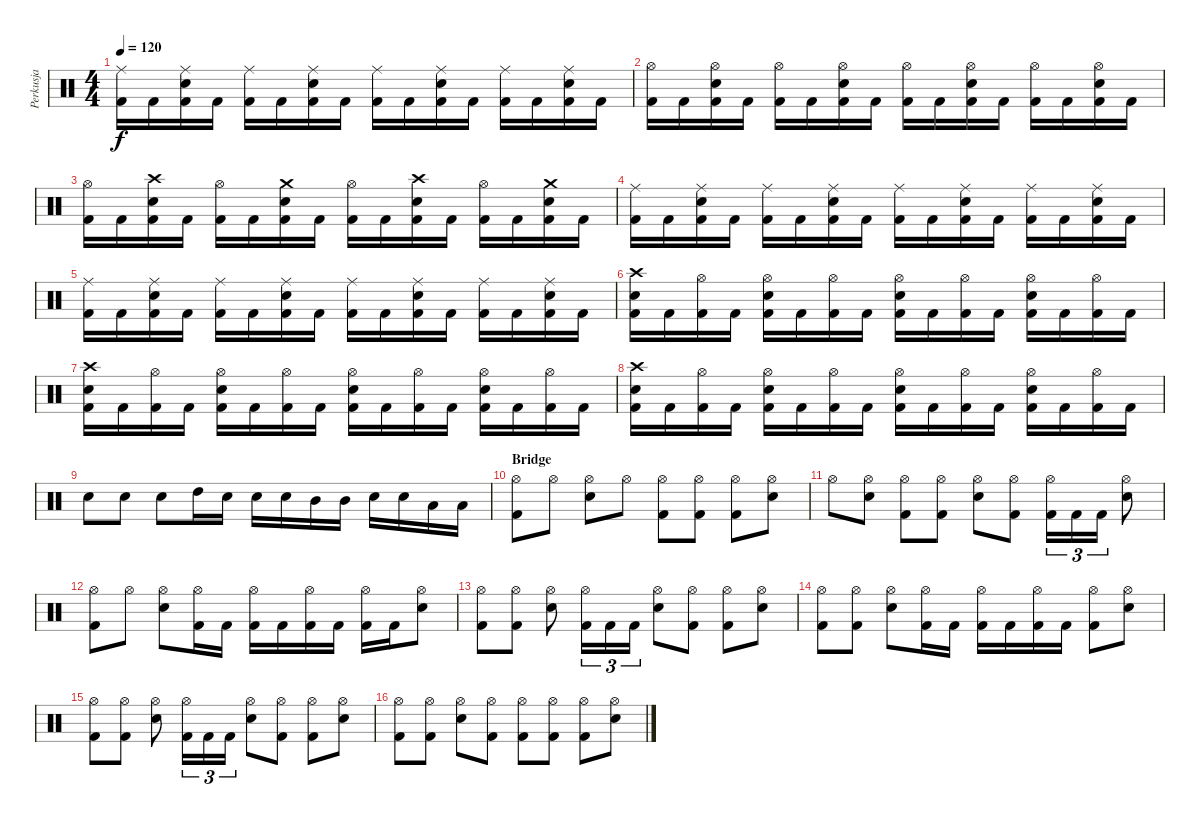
\track ("Perkusja" "Perkusja") {instrument percussion}
\staff {score}
\articulation defaults
\ts (4 4)
\tempo 120
\clef neutral
\ks c
("Ride (middle)" "Kick (hit) 2").16{dy f} "Kick (hit) 2".16 ("Ride (middle)" "Snare (hit) 2" "Kick (hit) 2").16 "Kick (hit) 2".16 ("Ride (middle)" "Kick (hit) 2").16 "Kick (hit) 2".16 ("Ride (middle)" "Snare (hit) 2" "Kick (hit) 2").16 "Kick (hit) 2".16 ("Ride (middle)" "Kick (hit) 2").16 "Kick (hit) 2".16 ("Ride (middle)" "Snare (hit) 2" "Kick (hit) 2").16 "Kick (hit) 2".16 ("Ride (middle)" "Kick (hit) 2").16 "Kick (hit) 2".16 ("Ride (middle)" "Snare (hit) 2" "Kick (hit) 2").16 "Kick (hit) 2".16 |
("Hi-Hat (open)" "Kick (hit) 2").16 "Kick (hit) 2".16 ("Hi-Hat (open)" "Snare (hit) 2" "Kick (hit) 2").16 "Kick (hit) 2".16 ("Hi-Hat (open)" "Kick (hit) 2").16 "Kick (hit) 2".16 ("Hi-Hat (open)" "Snare (hit) 2" "Kick (hit) 2").16 "Kick (hit) 2".16 ("Hi-Hat (open)" "Kick (hit) 2").16 "Kick (hit) 2".16 ("Hi-Hat (open)" "Snare (hit) 2" "Kick (hit) 2").16 "Kick (hit) 2".16 ("Hi-Hat (open)" "Kick (hit) 2").16 "Kick (hit) 2".16 ("Hi-Hat (open)" "Snare (hit) 2" "Kick (hit) 2").16 "Kick (hit) 2".16 |
("Hi-Hat (open)" "Kick (hit) 2").16 "Kick (hit) 2".16 ("Crash high (hit)" "Snare (hit) 2" "Kick (hit) 2").16 "Kick (hit) 2".16 ("Hi-Hat (open)" "Kick (hit) 2").16 "Kick (hit) 2".16 ("Crash medium (hit)" "Snare (hit) 2" "Kick (hit) 2").16 "Kick (hit) 2".16 ("Hi-Hat (open)" "Kick (hit) 2").16 "Kick (hit) 2".16 ("Crash high (hit)" "Snare (hit) 2" "Kick (hit) 2").16 "Kick (hit) 2".16 ("Hi-Hat (open)" "Kick (hit) 2").16 "Kick (hit) 2".16 ("Crash medium (hit)" "Snare (hit) 2" "Kick (hit) 2").16 "Kick (hit) 2".16 |
("Ride (middle)" "Kick (hit) 2").16 "Kick (hit) 2".16 ("Ride (middle)" "Snare (hit) 2" "Kick (hit) 2").16 "Kick (hit) 2".16 ("Ride (middle)" "Kick (hit) 2").16 "Kick (hit) 2".16 ("Ride (middle)" "Snare (hit) 2" "Kick (hit) 2").16 "Kick (hit) 2".16 ("Ride (middle)" "Kick (hit) 2").16 "Kick (hit) 2".16 ("Ride (middle)" "Snare (hit) 2" "Kick (hit) 2").16 "Kick (hit) 2".16 ("Ride (middle)" "Kick (hit) 2").16 "Kick (hit) 2".16 ("Ride (middle)" "Snare (hit) 2" "Kick (hit) 2").16 "Kick (hit) 2".16 |
("Ride (middle)" "Kick (hit) 2").16 "Kick (hit) 2".16 ("Ride (middle)" "Snare (hit) 2" "Kick (hit) 2").16 "Kick (hit) 2".16 ("Ride (middle)" "Kick (hit) 2").16 "Kick (hit) 2".16 ("Ride (middle)" "Snare (hit) 2" "Kick (hit) 2").16 "Kick (hit) 2".16 ("Ride (middle)" "Kick (hit) 2").16 "Kick (hit) 2".16 ("Ride (middle)" "Snare (hit) 2" "Kick (hit) 2").16 "Kick (hit) 2".16 ("Ride (middle)" "Kick (hit) 2").16 "Kick (hit) 2".16 ("Ride (middle)" "Snare (hit) 2" "Kick (hit) 2").16 "Kick (hit) 2".16 |
("Crash high (hit)" "Snare (hit) 2" "Kick (hit) 2").16 "Kick (hit) 2".16 ("Hi-Hat (open)" "Kick (hit) 2").16 "Kick (hit) 2".16 ("Hi-Hat (open)" "Snare (hit) 2" "Kick (hit) 2").16 "Kick (hit) 2".16 ("Hi-Hat (open)" "Kick (hit) 2").16 "Kick (hit) 2".16 ("Hi-Hat (open)" "Snare (hit) 2" "Kick (hit) 2").16 "Kick (hit) 2".16 ("Hi-Hat (open)" "Kick (hit) 2").16 "Kick (hit) 2".16 ("Hi-Hat (open)" "Snare (hit) 2" "Kick (hit) 2").16 "Kick (hit) 2".16 ("Hi-Hat (open)" "Kick (hit) 2").16 "Kick (hit) 2".16 |
("Crash high (hit)" "Snare (hit) 2" "Kick (hit) 2").16 "Kick (hit) 2".16 ("Hi-Hat (open)" "Kick (hit) 2").16 "Kick (hit) 2".16 ("Hi-Hat (open)" "Snare (hit) 2" "Kick (hit) 2").16 "Kick (hit) 2".16 ("Hi-Hat (open)" "Kick (hit) 2").16 "Kick (hit) 2".16 ("Hi-Hat (open)" "Snare (hit) 2" "Kick (hit) 2").16 "Kick (hit) 2".16 ("Hi-Hat (open)" "Kick (hit) 2").16 "Kick (hit) 2".16 ("Hi-Hat (open)" "Snare (hit) 2" "Kick (hit) 2").16 "Kick (hit) 2".16 ("Hi-Hat (open)" "Kick (hit) 2").16 "Kick (hit) 2".16 |
("Crash high (hit)" "Snare (hit) 2" "Kick (hit) 2").16 "Kick (hit) 2".16 ("Hi-Hat (open)" "Kick (hit) 2").16 "Kick (hit) 2".16 ("Hi-Hat (open)" "Snare (hit) 2" "Kick (hit) 2").16 "Kick (hit) 2".16 ("Hi-Hat (open)" "Kick (hit) 2").16 "Kick (hit) 2".16 ("Hi-Hat (open)" "Snare (hit) 2" "Kick (hit) 2").16 "Kick (hit) 2".16 ("Hi-Hat (open)" "Kick (hit) 2").16 "Kick (hit) 2".16 ("Hi-Hat (open)" "Snare (hit) 2" "Kick (hit) 2").16 "Kick (hit) 2".16 ("Hi-Hat (open)" "Kick (hit) 2").16 "Kick (hit) 2".16 |
"Snare (hit) 2".8 "Snare (hit) 2".8 "Snare (hit) 2".8 "High Tom (hit)".16 "Snare (hit) 2".16 "Snare (hit) 2".16 "Snare (hit) 2".16 "Mid Tom (hit)".16 "Mid Tom (hit)".16 "Snare (hit) 2".16 "Snare (hit) 2".16 "Low Tom (hit)".16 "Low Tom (hit)".16 |
\section ("" "Bridge")
("Hi-Hat (open)" "Kick (hit) 2").8 "Hi-Hat (open)".8 ("Hi-Hat (open)" "Snare (hit) 2").8 "Hi-Hat (open)".8 ("Hi-Hat (open)" "Kick (hit) 2").8 ("Hi-Hat (open)" "Kick (hit) 2").8 ("Hi-Hat (open)" "Kick (hit) 2").8 ("Hi-Hat (open)" "Snare (hit) 2").8 |
"Hi-Hat (open)".8 ("Hi-Hat (open)" "Snare (hit) 2").8 ("Hi-Hat (open)" "Kick (hit) 2").8 ("Hi-Hat (open)" "Kick (hit) 2").8 ("Hi-Hat (open)" "Snare (hit) 2").8 ("Hi-Hat (open)" "Kick (hit) 2").8 ("Hi-Hat (open)" "Kick (hit) 2").16{tu (3 2)} "Kick (hit) 2".16{tu (3 2)} "Kick (hit) 2".16{tu (3 2)} ("Hi-Hat (open)" "Snare (hit) 2").8 |
("Hi-Hat (open)" "Kick (hit) 2").8 "Hi-Hat (open)".8 ("Hi-Hat (open)" "Snare (hit) 2").8 ("Hi-Hat (open)" "Kick (hit) 2").16 "Kick (hit) 2".16 ("Hi-Hat (open)" "Kick (hit) 2").16 "Kick (hit) 2".16 ("Hi-Hat (open)" "Kick (hit) 2").16 "Kick (hit) 2".16 ("Hi-Hat (open)" "Kick (hit) 2").16 "Kick (hit) 2".16 ("Hi-Hat (open)" "Snare (hit) 2").8 |
("Hi-Hat (open)" "Kick (hit) 2").8 ("Hi-Hat (open)" "Kick (hit) 2").8 ("Hi-Hat (open)" "Snare (hit) 2").8 ("Hi-Hat (open)" "Kick (hit) 2").16{tu (3 2)} "Kick (hit) 2".16{tu (3 2)} "Kick (hit) 2".16{tu (3 2)} ("Hi-Hat (open)" "Snare (hit) 2").8 ("Hi-Hat (open)" "Kick (hit) 2").8 ("Hi-Hat (open)" "Kick (hit) 2").8 ("Hi-Hat (open)" "Snare (hit) 2").8 |
("Hi-Hat (open)" "Kick (hit) 2").8 ("Hi-Hat (open)" "Kick (hit) 2").8 ("Hi-Hat (open)" "Snare (hit) 2").8 ("Hi-Hat (open)" "Kick (hit) 2").16 "Kick (hit) 2".16 ("Hi-Hat (open)" "Kick (hit) 2").16 "Kick (hit) 2".16 ("Hi-Hat (open)" "Kick (hit) 2").16 "Kick (hit) 2".16 ("Hi-Hat (open)" "Kick (hit) 2").8 ("Hi-Hat (open)" "Snare (hit) 2").8 |
("Hi-Hat (open)" "Kick (hit) 2").8 ("Hi-Hat (open)" "Kick (hit) 2").8 ("Hi-Hat (open)" "Snare (hit) 2").8 ("Hi-Hat (open)" "Kick (hit) 2").16{tu (3 2)} "Kick (hit) 2".16{tu (3 2)} "Kick (hit) 2".16{tu (3 2)} ("Hi-Hat (open)" "Snare (hit) 2").8 ("Hi-Hat (open)" "Kick (hit) 2").8 ("Hi-Hat (open)" "Kick (hit) 2").8 ("Hi-Hat (open)" "Snare (hit) 2").8 |
("Hi-Hat (open)" "Kick (hit) 2").8 ("Hi-Hat (open)" "Kick (hit) 2").8 ("Hi-Hat (open)" "Snare (hit) 2").8 ("Hi-Hat (open)" "Kick (hit) 2").8 ("Hi-Hat (open)" "Kick (hit) 2").8 ("Hi-Hat (open)" "Kick (hit) 2").8 ("Hi-Hat (open)" "Kick (hit) 2").8 ("Hi-Hat (open)" "Snare (hit) 2").8
